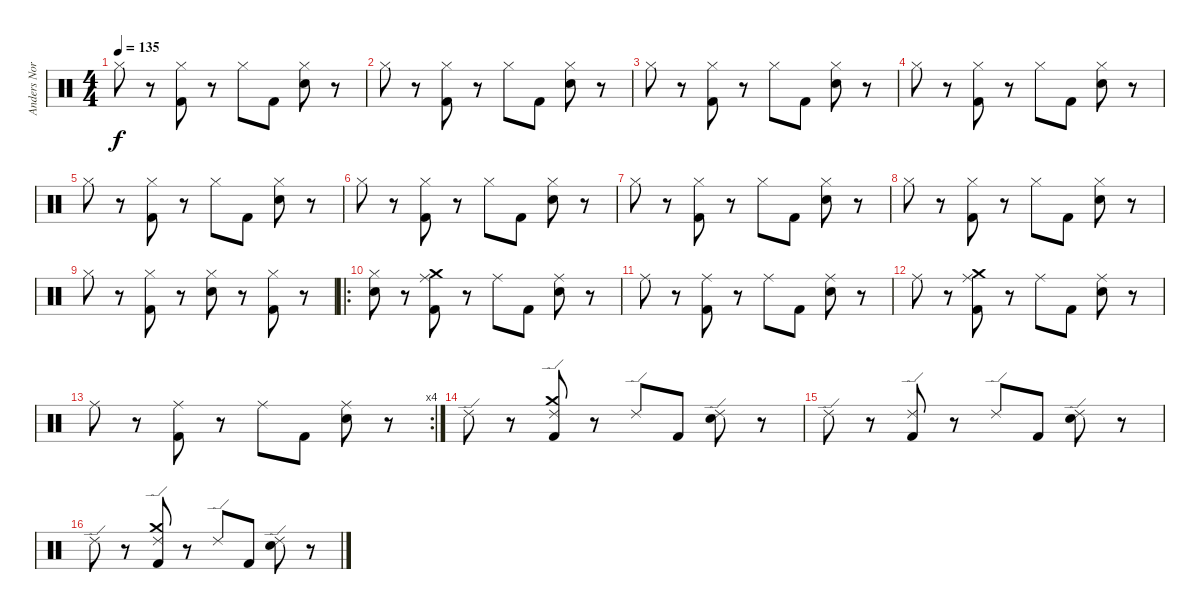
\track ("Anders Nordin" "Anders Nor") {instrument percussion}
\staff {score}
\articulation defaults
\ts (4 4)
\tempo 135
\clef neutral
\ks c "Hi-Hat (closed)".8{dy f}
r.8 ("Hi-Hat (closed)" "Kick (hit) 2").8 r.8 "Hi-Hat (closed)".8 "Kick (hit) 2".8 ("Hi-Hat (closed)" "Snare (hit) 2").8 r.8 |
"Hi-Hat (closed)".8 r.8 ("Hi-Hat (closed)" "Kick (hit) 2").8 r.8 "Hi-Hat (closed)".8 "Kick (hit) 2".8 ("Hi-Hat (closed)" "Snare (hit) 2").8 r.8 |
"Hi-Hat (closed)".8 r.8 ("Hi-Hat (closed)" "Kick (hit) 2").8 r.8 "Hi-Hat (closed)".8 "Kick (hit) 2".8 ("Hi-Hat (closed)" "Snare (hit) 2").8 r.8 |
"Hi-Hat (closed)".8 r.8 ("Hi-Hat (closed)" "Kick (hit) 2").8 r.8 "Hi-Hat (closed)".8 "Kick (hit) 2".8 ("Hi-Hat (closed)" "Snare (hit) 2").8 r.8 |
"Hi-Hat (closed)".8 r.8 ("Hi-Hat (closed)" "Kick (hit) 2").8 r.8 "Hi-Hat (closed)".8 "Kick (hit) 2".8 ("Hi-Hat (closed)" "Snare (hit) 2").8 r.8 |
"Hi-Hat (closed)".8 r.8 ("Hi-Hat (closed)" "Kick (hit) 2").8 r.8 "Hi-Hat (closed)".8 "Kick (hit) 2".8 ("Hi-Hat (closed)" "Snare (hit) 2").8 r.8 |
"Hi-Hat (closed)".8 r.8 ("Hi-Hat (closed)" "Kick (hit) 2").8 r.8 "Hi-Hat (closed)".8 "Kick (hit) 2".8 ("Hi-Hat (closed)" "Snare (hit) 2").8 r.8 |
"Hi-Hat (closed)".8 r.8 ("Hi-Hat (closed)" "Kick (hit) 2").8 r.8 "Hi-Hat (closed)".8 "Kick (hit) 2".8 ("Hi-Hat (closed)" "Snare (hit) 2").8 r.8 |
"Hi-Hat (closed)".8 r.8 ("Hi-Hat (closed)" "Kick (hit) 2").8 r.8 ("Hi-Hat (closed)" "Snare (hit) 2").8 r.8 ("Hi-Hat (closed)" "Kick (hit) 2").8 r.8 |
\ro
("Hi-Hat (closed)" "Snare (hit) 2").8 r.8 ("Ride (middle)" "Crash medium (hit)" "Kick (hit) 2").8 r.8 "Ride (middle)".8 "Kick (hit) 2".8 ("Ride (middle)" "Snare (hit) 2").8 r.8 |
"Ride (middle)".8 r.8 ("Ride (middle)" "Kick (hit) 2").8 r.8 "Ride (middle)".8 "Kick (hit) 2".8 ("Ride (middle)" "Snare (hit) 2").8 r.8 |
"Ride (middle)".8 r.8 ("Ride (middle)" "Crash medium (hit)" "Kick (hit) 2").8 r.8 "Ride (middle)".8 "Kick (hit) 2".8 ("Ride (middle)" "Snare (hit) 2").8 r.8 |
\rc 4 "Ride (middle)".8
r.8 ("Ride (middle)" "Kick (hit) 2").8 r.8 "Ride (middle)".8 "Kick (hit) 2".8 ("Ride (middle)" "Snare (hit) 2").8 r.8 |
"Ride (edge) 2".8 r.8 ("Ride (edge) 2" "Crash medium (hit)" "Kick (hit) 2").8 r.8 "Ride (edge) 2".8 "Kick (hit) 2".8 ("Ride (edge) 2" "Snare (hit) 2").8 r.8 |
"Ride (edge) 2".8 r.8 ("Ride (edge) 2" "Kick (hit) 2").8 r.8 "Ride (edge) 2".8 "Kick (hit) 2".8 ("Ride (edge) 2" "Snare (hit) 2").8 r.8 |
"Ride (edge) 2".8 r.8 ("Ride (edge) 2" "Crash medium (hit)" "Kick (hit) 2").8 r.8 "Ride (edge) 2".8 "Kick (hit) 2".8 ("Ride (edge) 2" "Snare (hit) 2").8 r.8
